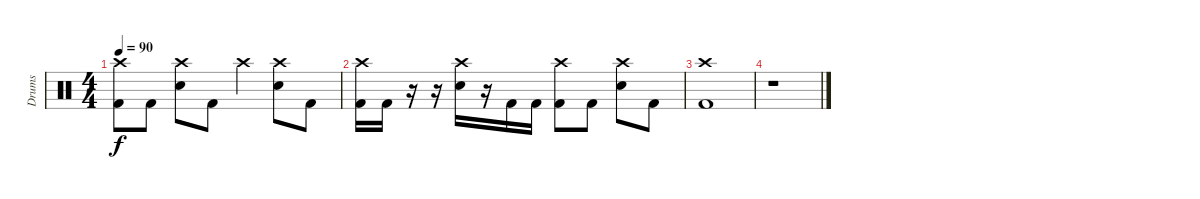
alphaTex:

\track ("Drums" "Drums") {instrument percussion}
\staff {score}
\articulation defaults
\ts (4 4)
\tempo 90
\clef neutral
\ks c
("Crash high (hit)" "Kick (hit) 2").8{dy f} "Kick (hit) 2".8 ("Crash high (hit)" "Electric Snare (hit)").8 "Kick (hit) 2".8 "Crash high (hit)".4 ("Crash high (hit)" "Electric Snare (hit)").8 "Kick (hit) 2".8 |
("Crash high (hit)" "Kick (hit) 2").16 "Kick (hit) 2".16 r.16 r.16 ("Crash high (hit)" "Electric Snare (hit)").16 r.16 "Kick (hit) 2".16 "Kick (hit) 2".16 ("Crash high (hit)" "Kick (hit) 2").8 "Kick (hit) 2".8 ("Crash high (hit)" "Electric Snare (hit)").8 "Kick (hit) 2".8 |
("Crash high (hit)" "Kick (hit) 2").1 |
r.1
